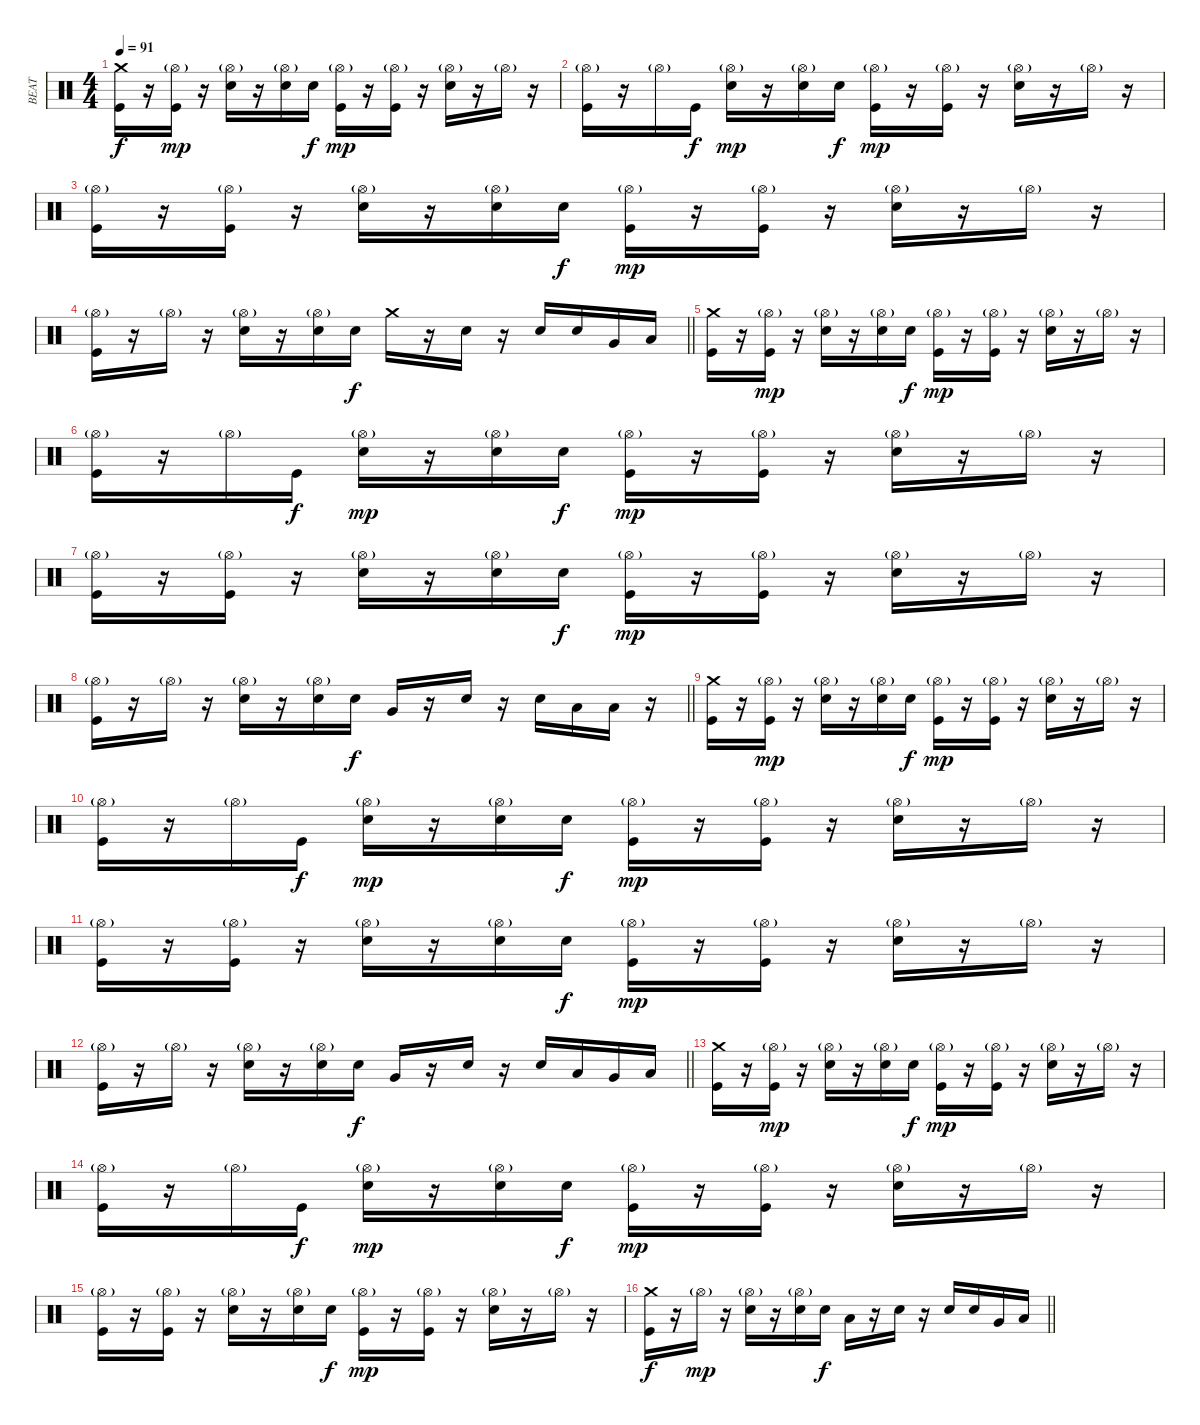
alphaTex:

\track ("BEAT" "BEAT") {instrument percussion}
\staff {score}
\articulation defaults
\ts (4 4)
\section ("" "")
\tempo 91
\clef neutral
\ks c
("Crash medium (hit)" "Kick (hit)").16{dy f} r.16 ("Hi-Hat (open)"{g} "Kick (hit)").16{dy mp} r.16 ("Hi-Hat (open)"{g} "Electric Snare (hit)").16 r.16 ("Hi-Hat (open)"{g} "Electric Snare (hit)").16 "Electric Snare (hit)".16{dy f} ("Hi-Hat (open)"{g} "Kick (hit)").16{dy mp} r.16 ("Hi-Hat (open)"{g} "Kick (hit)").16 r.16 ("Hi-Hat (open)"{g} "Electric Snare (hit)").16 r.16 "Hi-Hat (open)"{g}.16 r.16 |
("Hi-Hat (open)"{g} "Kick (hit)").16 r.16 "Hi-Hat (open)"{g}.16 "Kick (hit)".16{dy f} ("Hi-Hat (open)"{g} "Electric Snare (hit)").16{dy mp} r.16 ("Hi-Hat (open)"{g} "Electric Snare (hit)").16 "Electric Snare (hit)".16{dy f} ("Hi-Hat (open)"{g} "Kick (hit)").16{dy mp} r.16 ("Hi-Hat (open)"{g} "Kick (hit)").16 r.16 ("Hi-Hat (open)"{g} "Electric Snare (hit)").16 r.16 "Hi-Hat (open)"{g}.16 r.16 |
("Hi-Hat (open)"{g} "Kick (hit)").16 r.16 ("Hi-Hat (open)"{g} "Kick (hit)").16 r.16 ("Hi-Hat (open)"{g} "Electric Snare (hit)").16 r.16 ("Hi-Hat (open)"{g} "Electric Snare (hit)").16 "Electric Snare (hit)".16{dy f} ("Hi-Hat (open)"{g} "Kick (hit)").16{dy mp} r.16 ("Hi-Hat (open)"{g} "Kick (hit)").16 r.16 ("Hi-Hat (open)"{g} "Electric Snare (hit)").16 r.16 "Hi-Hat (open)"{g}.16 r.16 |
\barLineRight lightlight
("Hi-Hat (open)"{g} "Kick (hit)").16 r.16 "Hi-Hat (open)"{g}.16 r.16 ("Hi-Hat (open)"{g} "Electric Snare (hit)").16 r.16 ("Hi-Hat (open)"{g} "Electric Snare (hit)").16 "Electric Snare (hit)".16{dy f} "Crash medium (hit)".16 r.16 "Electric Snare (hit)".16 r.16 "Electric Snare (hit)".16 "Electric Snare (hit)".16 "Very Low Tom (hit)".16 "Low Floor Tom (hit)".16 |
("Crash medium (hit)" "Kick (hit)").16 r.16 ("Hi-Hat (open)"{g} "Kick (hit)").16{dy mp} r.16 ("Hi-Hat (open)"{g} "Electric Snare (hit)").16 r.16 ("Hi-Hat (open)"{g} "Electric Snare (hit)").16 "Electric Snare (hit)".16{dy f} ("Hi-Hat (open)"{g} "Kick (hit)").16{dy mp} r.16 ("Hi-Hat (open)"{g} "Kick (hit)").16 r.16 ("Hi-Hat (open)"{g} "Electric Snare (hit)").16 r.16 "Hi-Hat (open)"{g}.16 r.16 |
("Hi-Hat (open)"{g} "Kick (hit)").16 r.16 "Hi-Hat (open)"{g}.16 "Kick (hit)".16{dy f} ("Hi-Hat (open)"{g} "Electric Snare (hit)").16{dy mp} r.16 ("Hi-Hat (open)"{g} "Electric Snare (hit)").16 "Electric Snare (hit)".16{dy f} ("Hi-Hat (open)"{g} "Kick (hit)").16{dy mp} r.16 ("Hi-Hat (open)"{g} "Kick (hit)").16 r.16 ("Hi-Hat (open)"{g} "Electric Snare (hit)").16 r.16 "Hi-Hat (open)"{g}.16 r.16 |
("Hi-Hat (open)"{g} "Kick (hit)").16 r.16 ("Hi-Hat (open)"{g} "Kick (hit)").16 r.16 ("Hi-Hat (open)"{g} "Electric Snare (hit)").16 r.16 ("Hi-Hat (open)"{g} "Electric Snare (hit)").16 "Electric Snare (hit)".16{dy f} ("Hi-Hat (open)"{g} "Kick (hit)").16{dy mp} r.16 ("Hi-Hat (open)"{g} "Kick (hit)").16 r.16 ("Hi-Hat (open)"{g} "Electric Snare (hit)").16 r.16 "Hi-Hat (open)"{g}.16 r.16 |
\barLineRight lightlight
("Hi-Hat (open)"{g} "Kick (hit)").16 r.16 "Hi-Hat (open)"{g}.16 r.16 ("Hi-Hat (open)"{g} "Electric Snare (hit)").16 r.16 ("Hi-Hat (open)"{g} "Electric Snare (hit)").16 "Electric Snare (hit)".16{dy f} "Very Low Tom (hit)".16 r.16 "Electric Snare (hit)".16 r.16 "Electric Snare (hit)".16 "Low Tom (hit)".16 "Low Floor Tom (hit)".16 r.16 |
\section ("" "")
("Crash medium (hit)" "Kick (hit)").16 r.16 ("Hi-Hat (open)"{g} "Kick (hit)").16{dy mp} r.16 ("Hi-Hat (open)"{g} "Electric Snare (hit)").16 r.16 ("Hi-Hat (open)"{g} "Electric Snare (hit)").16 "Electric Snare (hit)".16{dy f} ("Hi-Hat (open)"{g} "Kick (hit)").16{dy mp} r.16 ("Hi-Hat (open)"{g} "Kick (hit)").16 r.16 ("Hi-Hat (open)"{g} "Electric Snare (hit)").16 r.16 "Hi-Hat (open)"{g}.16 r.16 |
("Hi-Hat (open)"{g} "Kick (hit)").16 r.16 "Hi-Hat (open)"{g}.16 "Kick (hit)".16{dy f} ("Hi-Hat (open)"{g} "Electric Snare (hit)").16{dy mp} r.16 ("Hi-Hat (open)"{g} "Electric Snare (hit)").16 "Electric Snare (hit)".16{dy f} ("Hi-Hat (open)"{g} "Kick (hit)").16{dy mp} r.16 ("Hi-Hat (open)"{g} "Kick (hit)").16 r.16 ("Hi-Hat (open)"{g} "Electric Snare (hit)").16 r.16 "Hi-Hat (open)"{g}.16 r.16 |
("Hi-Hat (open)"{g} "Kick (hit)").16 r.16 ("Hi-Hat (open)"{g} "Kick (hit)").16 r.16 ("Hi-Hat (open)"{g} "Electric Snare (hit)").16 r.16 ("Hi-Hat (open)"{g} "Electric Snare (hit)").16 "Electric Snare (hit)".16{dy f} ("Hi-Hat (open)"{g} "Kick (hit)").16{dy mp} r.16 ("Hi-Hat (open)"{g} "Kick (hit)").16 r.16 ("Hi-Hat (open)"{g} "Electric Snare (hit)").16 r.16 "Hi-Hat (open)"{g}.16 r.16 |
\barLineRight lightlight
("Hi-Hat (open)"{g} "Kick (hit)").16 r.16 "Hi-Hat (open)"{g}.16 r.16 ("Hi-Hat (open)"{g} "Electric Snare (hit)").16 r.16 ("Hi-Hat (open)"{g} "Electric Snare (hit)").16 "Electric Snare (hit)".16{dy f} "Very Low Tom (hit)".16 r.16 "Electric Snare (hit)".16 r.16 "Electric Snare (hit)".16 "Low Tom (hit)".16 "Very Low Tom (hit)".16 "Low Floor Tom (hit)".16 |
("Crash medium (hit)" "Kick (hit)").16 r.16 ("Hi-Hat (open)"{g} "Kick (hit)").16{dy mp} r.16 ("Hi-Hat (open)"{g} "Electric Snare (hit)").16 r.16 ("Hi-Hat (open)"{g} "Electric Snare (hit)").16 "Electric Snare (hit)".16{dy f} ("Hi-Hat (open)"{g} "Kick (hit)").16{dy mp} r.16 ("Hi-Hat (open)"{g} "Kick (hit)").16 r.16 ("Hi-Hat (open)"{g} "Electric Snare (hit)").16 r.16 "Hi-Hat (open)"{g}.16 r.16 |
("Hi-Hat (open)"{g} "Kick (hit)").16 r.16 "Hi-Hat (open)"{g}.16 "Kick (hit)".16{dy f} ("Hi-Hat (open)"{g} "Electric Snare (hit)").16{dy mp} r.16 ("Hi-Hat (open)"{g} "Electric Snare (hit)").16 "Electric Snare (hit)".16{dy f} ("Hi-Hat (open)"{g} "Kick (hit)").16{dy mp} r.16 ("Hi-Hat (open)"{g} "Kick (hit)").16 r.16 ("Hi-Hat (open)"{g} "Electric Snare (hit)").16 r.16 "Hi-Hat (open)"{g}.16 r.16 |
("Hi-Hat (open)"{g} "Kick (hit)").16 r.16 ("Hi-Hat (open)"{g} "Kick (hit)").16 r.16 ("Hi-Hat (open)"{g} "Electric Snare (hit)").16 r.16 ("Hi-Hat (open)"{g} "Electric Snare (hit)").16 "Electric Snare (hit)".16{dy f} ("Hi-Hat (open)"{g} "Kick (hit)").16{dy mp} r.16 ("Hi-Hat (open)"{g} "Kick (hit)").16 r.16 ("Hi-Hat (open)"{g} "Electric Snare (hit)").16 r.16 "Hi-Hat (open)"{g}.16 r.16 |
\barLineRight lightlight
("Crash medium (hit)" "Kick (hit)").16{dy f} r.16 "Hi-Hat (open)"{g}.16{dy mp} r.16 ("Hi-Hat (open)"{g} "Electric Snare (hit)").16 r.16 ("Hi-Hat (open)"{g} "Electric Snare (hit)").16 "Electric Snare (hit)".16{dy f} "Low Tom (hit)".16 r.16 "Electric Snare (hit)".16 r.16 "Electric Snare (hit)".16 "Electric Snare (hit)".16 "Very Low Tom (hit)".16 "Low Floor Tom (hit)".16
